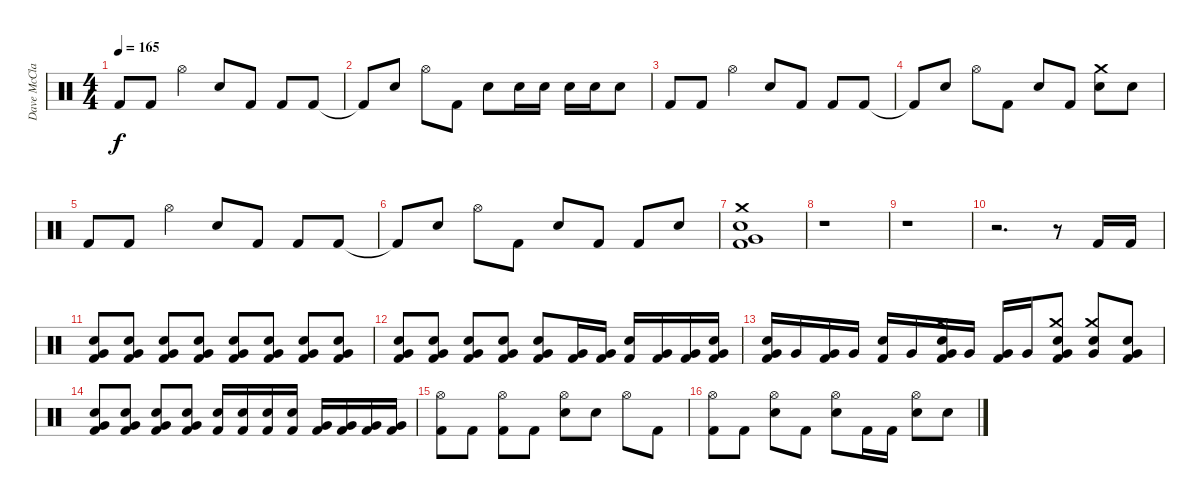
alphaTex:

\track ("Dave McClain" "Dave McCla") {instrument percussion}
\staff {score}
\articulation defaults
\ts (4 4)
\tempo 165
\clef neutral
\ks c "Kick (hit) 2".8{dy f} "Kick (hit) 2".8 "Hi-Hat (open)".4 "Electric Snare (hit)".8 "Kick (hit) 2".8 "Kick (hit) 2".8 "Kick (hit) 2".8
|
"Kick (hit) 2"{t}.8 "Electric Snare (hit)".8 "Hi-Hat (open)".8 "Kick (hit) 2".8 "Electric Snare (hit)".8 "Electric Snare (hit)".16 "Electric Snare (hit)".16 "Electric Snare (hit)".16 "Electric Snare (hit)".16 "Electric Snare (hit)".8 |
"Kick (hit) 2".8 "Kick (hit) 2".8 "Hi-Hat (open)".4 "Electric Snare (hit)".8 "Kick (hit) 2".8 "Kick (hit) 2".8 "Kick (hit) 2".8 |
"Kick (hit) 2"{t}.8 "Electric Snare (hit)".8 "Hi-Hat (open)".8 "Kick (hit) 2".8 "Electric Snare (hit)".8 "Kick (hit) 2".8 ("Crash medium (hit)" "Electric Snare (hit)").8 "Electric Snare (hit)".8 |
"Kick (hit) 2".8 "Kick (hit) 2".8 "Hi-Hat (open)".4 "Electric Snare (hit)".8 "Kick (hit) 2".8 "Kick (hit) 2".8 "Kick (hit) 2".8 |
"Kick (hit) 2"{t}.8 "Electric Snare (hit)".8 "Hi-Hat (open)".8 "Kick (hit) 2".8 "Electric Snare (hit)".8 "Kick (hit) 2".8 "Kick (hit) 2".8 "Electric Snare (hit)".8 |
("Crash medium (hit)" "Electric Snare (hit)" "Very Low Tom (hit)" "Kick (hit) 2").1 |
r.1 |
r.1 |
r.2{d} r.8 "Kick (hit) 2".16 "Kick (hit) 2".16 |
("Electric Snare (hit)" "Very Low Tom (hit)" "Kick (hit) 2").8 ("Electric Snare (hit)" "Very Low Tom (hit)" "Kick (hit) 2").8 ("Electric Snare (hit)" "Very Low Tom (hit)" "Kick (hit) 2").8 ("Electric Snare (hit)" "Very Low Tom (hit)" "Kick (hit) 2").8 ("Electric Snare (hit)" "Very Low Tom (hit)" "Kick (hit) 2").8 ("Electric Snare (hit)" "Very Low Tom (hit)" "Kick (hit) 2").8 ("Electric Snare (hit)" "Very Low Tom (hit)" "Kick (hit) 2").8 ("Electric Snare (hit)" "Very Low Tom (hit)" "Kick (hit) 2").8 |
("Electric Snare (hit)" "Very Low Tom (hit)" "Kick (hit) 2").8 ("Electric Snare (hit)" "Very Low Tom (hit)" "Kick (hit) 2").8 ("Electric Snare (hit)" "Very Low Tom (hit)" "Kick (hit) 2").8 ("Electric Snare (hit)" "Very Low Tom (hit)" "Kick (hit) 2").8 ("Electric Snare (hit)" "Very Low Tom (hit)" "Kick (hit) 2").8 ("Very Low Tom (hit)" "Kick (hit) 2").16 ("Very Low Tom (hit)" "Kick (hit) 2").16 ("Electric Snare (hit)" "Kick (hit) 2").16 ("Very Low Tom (hit)" "Kick (hit) 2").16 ("Very Low Tom (hit)" "Kick (hit) 2").16 ("Electric Snare (hit)" "Very Low Tom (hit)" "Kick (hit) 2").16 |
("Electric Snare (hit)" "Very Low Tom (hit)" "Kick (hit) 2").16 "Very Low Tom (hit)".16 ("Very Low Tom (hit)" "Kick (hit) 2").16 "Very Low Tom (hit)".16 ("Electric Snare (hit)" "Kick (hit) 2").16 "Very Low Tom (hit)".16 ("Crash medium (hit)" "Electric Snare (hit)" "Very Low Tom (hit)" "Kick (hit) 2").16 "Very Low Tom (hit)".16 ("Very Low Tom (hit)" "Kick (hit) 2").16 "Very Low Tom (hit)".16 ("Crash medium (hit)" "Snare (hit) 2" "Very Low Tom (hit)" "Kick (hit) 2").8 ("Crash medium (hit)" "Electric Snare (hit)" "Very Low Tom (hit)").8 ("Electric Snare (hit)" "Very Low Tom (hit)" "Kick (hit) 2").8 |
("Electric Snare (hit)" "Very Low Tom (hit)" "Kick (hit) 2").8 ("Electric Snare (hit)" "Very Low Tom (hit)" "Kick (hit) 2").8 ("Electric Snare (hit)" "Very Low Tom (hit)" "Kick (hit) 2").8 ("Electric Snare (hit)" "Very Low Tom (hit)" "Kick (hit) 2").8 ("Electric Snare (hit)" "Kick (hit) 2").16 ("Electric Snare (hit)" "Kick (hit) 2").16 ("Electric Snare (hit)" "Kick (hit) 2").16 ("Electric Snare (hit)" "Kick (hit) 2").16 ("Very Low Tom (hit)" "Kick (hit) 2").16 ("Very Low Tom (hit)" "Kick (hit) 2").16 ("Very Low Tom (hit)" "Kick (hit) 2").16 ("Very Low Tom (hit)" "Kick (hit) 2").16 |
("Hi-Hat (open)" "Kick (hit) 2").8 "Kick (hit) 2".8 ("Hi-Hat (open)" "Kick (hit) 2").8 "Kick (hit) 2".8 ("Hi-Hat (open)" "Electric Snare (hit)").8 "Electric Snare (hit)".8 "Hi-Hat (open)".8 "Kick (hit) 2".8 |
("Hi-Hat (open)" "Kick (hit) 2").8 "Kick (hit) 2".8 ("Hi-Hat (open)" "Electric Snare (hit)").8 "Kick (hit) 2".8 ("Hi-Hat (open)" "Electric Snare (hit)").8 "Kick (hit) 2".16 "Kick (hit) 2".16 ("Hi-Hat (open)" "Electric Snare (hit)").8 "Electric Snare (hit)".8
